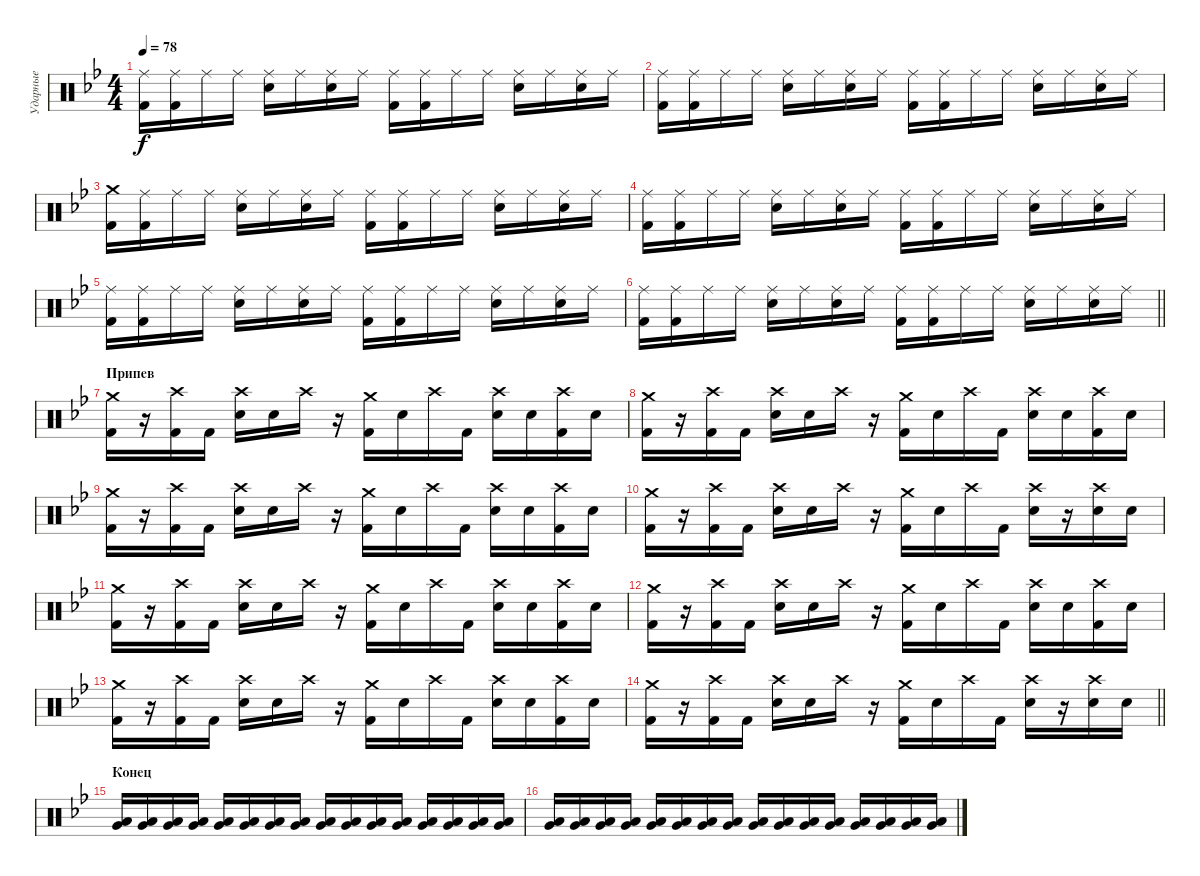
\track ("Ударные" "Ударные") {instrument percussion}
\staff {score}
\articulation defaults
\ts (4 4)
\tempo 78
\clef neutral
\ks gminor
("Ride (middle)" "Kick (hit) 2").16{dy f} ("Ride (middle)" "Kick (hit) 2").16 "Ride (middle)".16 "Ride (middle)".16 ("Ride (middle)" "Electric Snare (hit)").16 "Ride (middle)".16 ("Ride (middle)" "Electric Snare (hit)").16 "Ride (middle)".16 ("Ride (middle)" "Kick (hit) 2").16 ("Ride (middle)" "Kick (hit) 2").16 "Ride (middle)".16 "Ride (middle)".16 ("Ride (middle)" "Electric Snare (hit)").16 "Ride (middle)".16 ("Ride (middle)" "Electric Snare (hit)").16 "Ride (middle)".16 |
("Ride (middle)" "Kick (hit) 2").16 ("Ride (middle)" "Kick (hit) 2").16 "Ride (middle)".16 "Ride (middle)".16 ("Ride (middle)" "Electric Snare (hit)").16 "Ride (middle)".16 ("Ride (middle)" "Electric Snare (hit)").16 "Ride (middle)".16 ("Ride (middle)" "Kick (hit) 2").16 ("Ride (middle)" "Kick (hit) 2").16 "Ride (middle)".16 "Ride (middle)".16 ("Ride (middle)" "Electric Snare (hit)").16 "Ride (middle)".16 ("Ride (middle)" "Electric Snare (hit)").16 "Ride (middle)".16 |
("Crash medium (hit)" "Kick (hit) 2").16 ("Ride (middle)" "Kick (hit) 2").16 "Ride (middle)".16 "Ride (middle)".16 ("Ride (middle)" "Electric Snare (hit)").16 "Ride (middle)".16 ("Ride (middle)" "Electric Snare (hit)").16 "Ride (middle)".16 ("Ride (middle)" "Kick (hit) 2").16 ("Ride (middle)" "Kick (hit) 2").16 "Ride (middle)".16 "Ride (middle)".16 ("Ride (middle)" "Electric Snare (hit)").16 "Ride (middle)".16 ("Ride (middle)" "Electric Snare (hit)").16 "Ride (middle)".16 |
("Ride (middle)" "Kick (hit) 2").16 ("Ride (middle)" "Kick (hit) 2").16 "Ride (middle)".16 "Ride (middle)".16 ("Ride (middle)" "Electric Snare (hit)").16 "Ride (middle)".16 ("Ride (middle)" "Electric Snare (hit)").16 "Ride (middle)".16 ("Ride (middle)" "Kick (hit) 2").16 ("Ride (middle)" "Kick (hit) 2").16 "Ride (middle)".16 "Ride (middle)".16 ("Ride (middle)" "Electric Snare (hit)").16 "Ride (middle)".16 ("Ride (middle)" "Electric Snare (hit)").16 "Ride (middle)".16 |
("Ride (middle)" "Kick (hit) 2").16 ("Ride (middle)" "Kick (hit) 2").16 "Ride (middle)".16 "Ride (middle)".16 ("Ride (middle)" "Electric Snare (hit)").16 "Ride (middle)".16 ("Ride (middle)" "Electric Snare (hit)").16 "Ride (middle)".16 ("Ride (middle)" "Kick (hit) 2").16 ("Ride (middle)" "Kick (hit) 2").16 "Ride (middle)".16 "Ride (middle)".16 ("Ride (middle)" "Electric Snare (hit)").16 "Ride (middle)".16 ("Ride (middle)" "Electric Snare (hit)").16 "Ride (middle)".16 |
\barLineRight lightlight
("Ride (middle)" "Kick (hit) 2").16 ("Ride (middle)" "Kick (hit) 2").16 "Ride (middle)".16 "Ride (middle)".16 ("Ride (middle)" "Electric Snare (hit)").16 "Ride (middle)".16 ("Ride (middle)" "Electric Snare (hit)").16 "Ride (middle)".16 ("Ride (middle)" "Kick (hit) 2").16 ("Ride (middle)" "Kick (hit) 2").16 "Ride (middle)".16 "Ride (middle)".16 ("Ride (middle)" "Electric Snare (hit)").16 "Ride (middle)".16 ("Ride (middle)" "Electric Snare (hit)").16 "Ride (middle)".16 |
\section ("" "Припев")
("Crash medium (hit)" "Kick (hit) 2").16 r.16 ("Crash high (hit)" "Kick (hit) 2").16 "Kick (hit) 2".16 ("Crash high (hit)" "Electric Snare (hit)").16 "Electric Snare (hit)".16 "Crash high (hit)".16 r.16 ("Crash medium (hit)" "Kick (hit) 2").16 "Electric Snare (hit)".16 "Crash high (hit)".16 "Kick (hit) 2".16 ("Crash high (hit)" "Electric Snare (hit)").16 "Electric Snare (hit)".16 ("Crash high (hit)" "Kick (hit) 2").16 "Electric Snare (hit)".16 |
("Crash medium (hit)" "Kick (hit) 2").16 r.16 ("Crash high (hit)" "Kick (hit) 2").16 "Kick (hit) 2".16 ("Crash high (hit)" "Electric Snare (hit)").16 "Electric Snare (hit)".16 "Crash high (hit)".16 r.16 ("Crash medium (hit)" "Kick (hit) 2").16 "Electric Snare (hit)".16 "Crash high (hit)".16 "Kick (hit) 2".16 ("Crash high (hit)" "Electric Snare (hit)").16 "Electric Snare (hit)".16 ("Crash high (hit)" "Kick (hit) 2").16 "Electric Snare (hit)".16 |
("Crash medium (hit)" "Kick (hit) 2").16 r.16 ("Crash high (hit)" "Kick (hit) 2").16 "Kick (hit) 2".16 ("Crash high (hit)" "Electric Snare (hit)").16 "Electric Snare (hit)".16 "Crash high (hit)".16 r.16 ("Crash medium (hit)" "Kick (hit) 2").16 "Electric Snare (hit)".16 "Crash high (hit)".16 "Kick (hit) 2".16 ("Crash high (hit)" "Electric Snare (hit)").16 "Electric Snare (hit)".16 ("Crash high (hit)" "Kick (hit) 2").16 "Electric Snare (hit)".16 |
("Crash medium (hit)" "Kick (hit) 2").16 r.16 ("Crash high (hit)" "Kick (hit) 2").16 "Kick (hit) 2".16 ("Crash high (hit)" "Electric Snare (hit)").16 "Electric Snare (hit)".16 "Crash high (hit)".16 r.16 ("Crash medium (hit)" "Kick (hit) 2").16 "Electric Snare (hit)".16 "Crash high (hit)".16 "Kick (hit) 2".16 ("Crash high (hit)" "Electric Snare (hit)").16 r.16 ("Crash high (hit)" "Electric Snare (hit)").16 "Electric Snare (hit)".16 |
("Crash medium (hit)" "Kick (hit) 2").16 r.16 ("Crash high (hit)" "Kick (hit) 2").16 "Kick (hit) 2".16 ("Crash high (hit)" "Electric Snare (hit)").16 "Electric Snare (hit)".16 "Crash high (hit)".16 r.16 ("Crash medium (hit)" "Kick (hit) 2").16 "Electric Snare (hit)".16 "Crash high (hit)".16 "Kick (hit) 2".16 ("Crash high (hit)" "Electric Snare (hit)").16 "Electric Snare (hit)".16 ("Crash high (hit)" "Kick (hit) 2").16 "Electric Snare (hit)".16 |
("Crash medium (hit)" "Kick (hit) 2").16 r.16 ("Crash high (hit)" "Kick (hit) 2").16 "Kick (hit) 2".16 ("Crash high (hit)" "Electric Snare (hit)").16 "Electric Snare (hit)".16 "Crash high (hit)".16 r.16 ("Crash medium (hit)" "Kick (hit) 2").16 "Electric Snare (hit)".16 "Crash high (hit)".16 "Kick (hit) 2".16 ("Crash high (hit)" "Electric Snare (hit)").16 "Electric Snare (hit)".16 ("Crash high (hit)" "Kick (hit) 2").16 "Electric Snare (hit)".16 |
("Crash medium (hit)" "Kick (hit) 2").16 r.16 ("Crash high (hit)" "Kick (hit) 2").16 "Kick (hit) 2".16 ("Crash high (hit)" "Electric Snare (hit)").16 "Electric Snare (hit)".16 "Crash high (hit)".16 r.16 ("Crash medium (hit)" "Kick (hit) 2").16 "Electric Snare (hit)".16 "Crash high (hit)".16 "Kick (hit) 2".16 ("Crash high (hit)" "Electric Snare (hit)").16 "Electric Snare (hit)".16 ("Crash high (hit)" "Kick (hit) 2").16 "Electric Snare (hit)".16 |
\barLineRight lightlight
("Crash medium (hit)" "Kick (hit) 2").16 r.16 ("Crash high (hit)" "Kick (hit) 2").16 "Kick (hit) 2".16 ("Crash high (hit)" "Electric Snare (hit)").16 "Electric Snare (hit)".16 "Crash high (hit)".16 r.16 ("Crash medium (hit)" "Kick (hit) 2").16 "Electric Snare (hit)".16 "Crash high (hit)".16 "Kick (hit) 2".16 ("Crash high (hit)" "Electric Snare (hit)").16 r.16 ("Crash high (hit)" "Electric Snare (hit)").16 "Electric Snare (hit)".16 |
\section ("" "Конец")
("Low Floor Tom (hit)" "Very Low Tom (hit)").16{volume 16} ("Low Floor Tom (hit)" "Very Low Tom (hit)").16 ("Low Floor Tom (hit)" "Very Low Tom (hit)").16 ("Low Floor Tom (hit)" "Very Low Tom (hit)").16 ("Low Floor Tom (hit)" "Very Low Tom (hit)").16 ("Low Floor Tom (hit)" "Very Low Tom (hit)").16 ("Low Floor Tom (hit)" "Very Low Tom (hit)").16 ("Low Floor Tom (hit)" "Very Low Tom (hit)").16 ("Low Floor Tom (hit)" "Very Low Tom (hit)").16 ("Low Floor Tom (hit)" "Very Low Tom (hit)").16 ("Low Floor Tom (hit)" "Very Low Tom (hit)").16 ("Low Floor Tom (hit)" "Very Low Tom (hit)").16 ("Low Floor Tom (hit)" "Very Low Tom (hit)").16 ("Low Floor Tom (hit)" "Very Low Tom (hit)").16 ("Low Floor Tom (hit)" "Very Low Tom (hit)").16 ("Low Floor Tom (hit)" "Very Low Tom (hit)").16 |
("Low Floor Tom (hit)" "Very Low Tom (hit)").16 ("Low Floor Tom (hit)" "Very Low Tom (hit)").16 ("Low Floor Tom (hit)" "Very Low Tom (hit)").16 ("Low Floor Tom (hit)" "Very Low Tom (hit)").16 ("Low Floor Tom (hit)" "Very Low Tom (hit)").16 ("Low Floor Tom (hit)" "Very Low Tom (hit)").16 ("Low Floor Tom (hit)" "Very Low Tom (hit)").16 ("Low Floor Tom (hit)" "Very Low Tom (hit)").16 ("Low Floor Tom (hit)" "Very Low Tom (hit)").16 ("Low Floor Tom (hit)" "Very Low Tom (hit)").16 ("Low Floor Tom (hit)" "Very Low Tom (hit)").16 ("Low Floor Tom (hit)" "Very Low Tom (hit)").16 ("Low Floor Tom (hit)" "Very Low Tom (hit)").16 ("Low Floor Tom (hit)" "Very Low Tom (hit)").16 ("Low Floor Tom (hit)" "Very Low Tom (hit)").16 ("Low Floor Tom (hit)" "Very Low Tom (hit)").16
